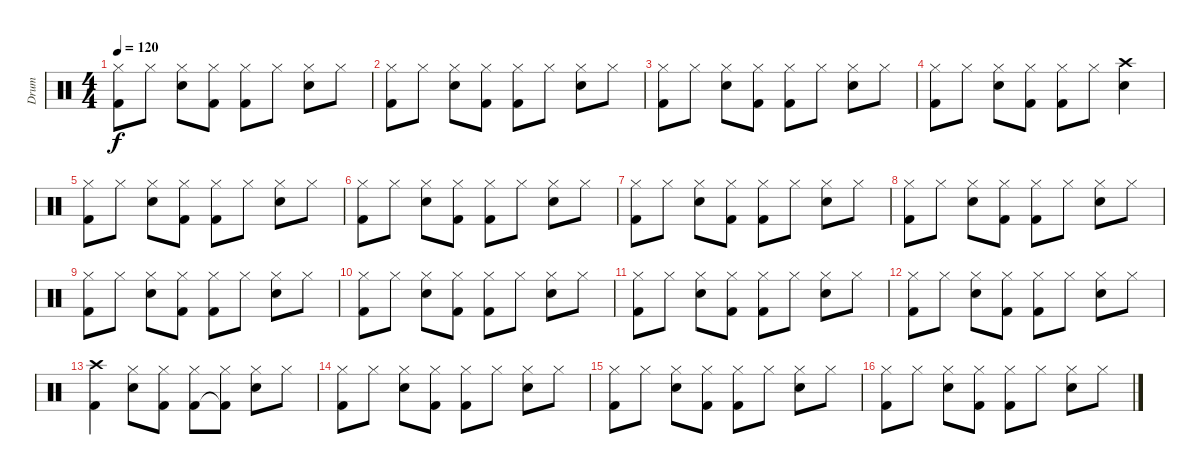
\track ("Drum" "Drum") {instrument percussion}
\staff {score}
\articulation defaults
\ts (4 4)
\tempo 120
\clef neutral
\ks c
("Hi-Hat (closed)" "Kick (hit) 2").8{dy f} "Hi-Hat (closed)".8 ("Hi-Hat (closed)" "Snare (hit) 2").8 ("Hi-Hat (closed)" "Kick (hit) 2").8 ("Hi-Hat (closed)" "Kick (hit) 2").8 "Hi-Hat (closed)".8 ("Hi-Hat (closed)" "Snare (hit) 2").8 "Hi-Hat (closed)".8 |
("Hi-Hat (closed)" "Kick (hit) 2").8 "Hi-Hat (closed)".8 ("Hi-Hat (closed)" "Snare (hit) 2").8 ("Hi-Hat (closed)" "Kick (hit) 2").8 ("Hi-Hat (closed)" "Kick (hit) 2").8 "Hi-Hat (closed)".8 ("Hi-Hat (closed)" "Snare (hit) 2").8 "Hi-Hat (closed)".8 |
("Hi-Hat (closed)" "Kick (hit) 2").8 "Hi-Hat (closed)".8 ("Hi-Hat (closed)" "Snare (hit) 2").8 ("Hi-Hat (closed)" "Kick (hit) 2").8 ("Hi-Hat (closed)" "Kick (hit) 2").8 "Hi-Hat (closed)".8 ("Hi-Hat (closed)" "Snare (hit) 2").8 "Hi-Hat (closed)".8 |
("Hi-Hat (closed)" "Kick (hit) 2").8 "Hi-Hat (closed)".8 ("Hi-Hat (closed)" "Snare (hit) 2").8 ("Hi-Hat (closed)" "Kick (hit) 2").8 ("Hi-Hat (closed)" "Kick (hit) 2").8 "Hi-Hat (closed)".8 ("Crash high (hit)" "Snare (hit) 2").4 |
("Hi-Hat (closed)" "Kick (hit) 2").8 "Hi-Hat (closed)".8 ("Hi-Hat (closed)" "Snare (hit) 2").8 ("Hi-Hat (closed)" "Kick (hit) 2").8 ("Hi-Hat (closed)" "Kick (hit) 2").8 "Hi-Hat (closed)".8 ("Hi-Hat (closed)" "Snare (hit) 2").8 "Hi-Hat (closed)".8 |
("Hi-Hat (closed)" "Kick (hit) 2").8 "Hi-Hat (closed)".8 ("Hi-Hat (closed)" "Snare (hit) 2").8 ("Hi-Hat (closed)" "Kick (hit) 2").8 ("Hi-Hat (closed)" "Kick (hit) 2").8 "Hi-Hat (closed)".8 ("Hi-Hat (closed)" "Snare (hit) 2").8 "Hi-Hat (closed)".8 |
("Hi-Hat (closed)" "Kick (hit) 2").8 "Hi-Hat (closed)".8 ("Hi-Hat (closed)" "Snare (hit) 2").8 ("Hi-Hat (closed)" "Kick (hit) 2").8 ("Hi-Hat (closed)" "Kick (hit) 2").8 "Hi-Hat (closed)".8 ("Hi-Hat (closed)" "Snare (hit) 2").8 "Hi-Hat (closed)".8 |
("Hi-Hat (closed)" "Kick (hit) 2").8 "Hi-Hat (closed)".8 ("Hi-Hat (closed)" "Snare (hit) 2").8 ("Hi-Hat (closed)" "Kick (hit) 2").8 ("Hi-Hat (closed)" "Kick (hit) 2").8 "Hi-Hat (closed)".8 ("Hi-Hat (closed)" "Snare (hit) 2").8 "Hi-Hat (closed)".8 |
("Hi-Hat (closed)" "Kick (hit) 2").8 "Hi-Hat (closed)".8 ("Hi-Hat (closed)" "Snare (hit) 2").8 ("Hi-Hat (closed)" "Kick (hit) 2").8 ("Hi-Hat (closed)" "Kick (hit) 2").8 "Hi-Hat (closed)".8 ("Hi-Hat (closed)" "Snare (hit) 2").8 "Hi-Hat (closed)".8 |
("Hi-Hat (closed)" "Kick (hit) 2").8 "Hi-Hat (closed)".8 ("Hi-Hat (closed)" "Snare (hit) 2").8 ("Hi-Hat (closed)" "Kick (hit) 2").8 ("Hi-Hat (closed)" "Kick (hit) 2").8 "Hi-Hat (closed)".8 ("Hi-Hat (closed)" "Snare (hit) 2").8 "Hi-Hat (closed)".8 |
("Hi-Hat (closed)" "Kick (hit) 2").8 "Hi-Hat (closed)".8 ("Hi-Hat (closed)" "Snare (hit) 2").8 ("Hi-Hat (closed)" "Kick (hit) 2").8 ("Hi-Hat (closed)" "Kick (hit) 2").8 "Hi-Hat (closed)".8 ("Hi-Hat (closed)" "Snare (hit) 2").8 "Hi-Hat (closed)".8 |
("Hi-Hat (closed)" "Kick (hit) 2").8 "Hi-Hat (closed)".8 ("Hi-Hat (closed)" "Snare (hit) 2").8 ("Hi-Hat (closed)" "Kick (hit) 2").8 ("Hi-Hat (closed)" "Kick (hit) 2").8 "Hi-Hat (closed)".8 ("Hi-Hat (closed)" "Snare (hit) 2").8 "Hi-Hat (closed)".8 |
("Crash high (hit)" "Kick (hit) 2").4 ("Hi-Hat (closed)" "Snare (hit) 2").8 ("Hi-Hat (closed)" "Kick (hit) 2").8 ("Hi-Hat (closed)" "Kick (hit) 2").8 ("Hi-Hat (closed)" "Kick (hit) 2"{t}).8 ("Hi-Hat (closed)" "Snare (hit) 2").8 "Hi-Hat (closed)".8 |
("Hi-Hat (closed)" "Kick (hit) 2").8 "Hi-Hat (closed)".8 ("Hi-Hat (closed)" "Snare (hit) 2").8 ("Hi-Hat (closed)" "Kick (hit) 2").8 ("Hi-Hat (closed)" "Kick (hit) 2").8 "Hi-Hat (closed)".8 ("Hi-Hat (closed)" "Snare (hit) 2").8 "Hi-Hat (closed)".8 |
("Hi-Hat (closed)" "Kick (hit) 2").8 "Hi-Hat (closed)".8 ("Hi-Hat (closed)" "Snare (hit) 2").8 ("Hi-Hat (closed)" "Kick (hit) 2").8 ("Hi-Hat (closed)" "Kick (hit) 2").8 "Hi-Hat (closed)".8 ("Hi-Hat (closed)" "Snare (hit) 2").8 "Hi-Hat (closed)".8 |
("Hi-Hat (closed)" "Kick (hit) 2").8 "Hi-Hat (closed)".8 ("Hi-Hat (closed)" "Snare (hit) 2").8 ("Hi-Hat (closed)" "Kick (hit) 2").8 ("Hi-Hat (closed)" "Kick (hit) 2").8 "Hi-Hat (closed)".8 ("Hi-Hat (closed)" "Snare (hit) 2").8 "Hi-Hat (closed)".8
